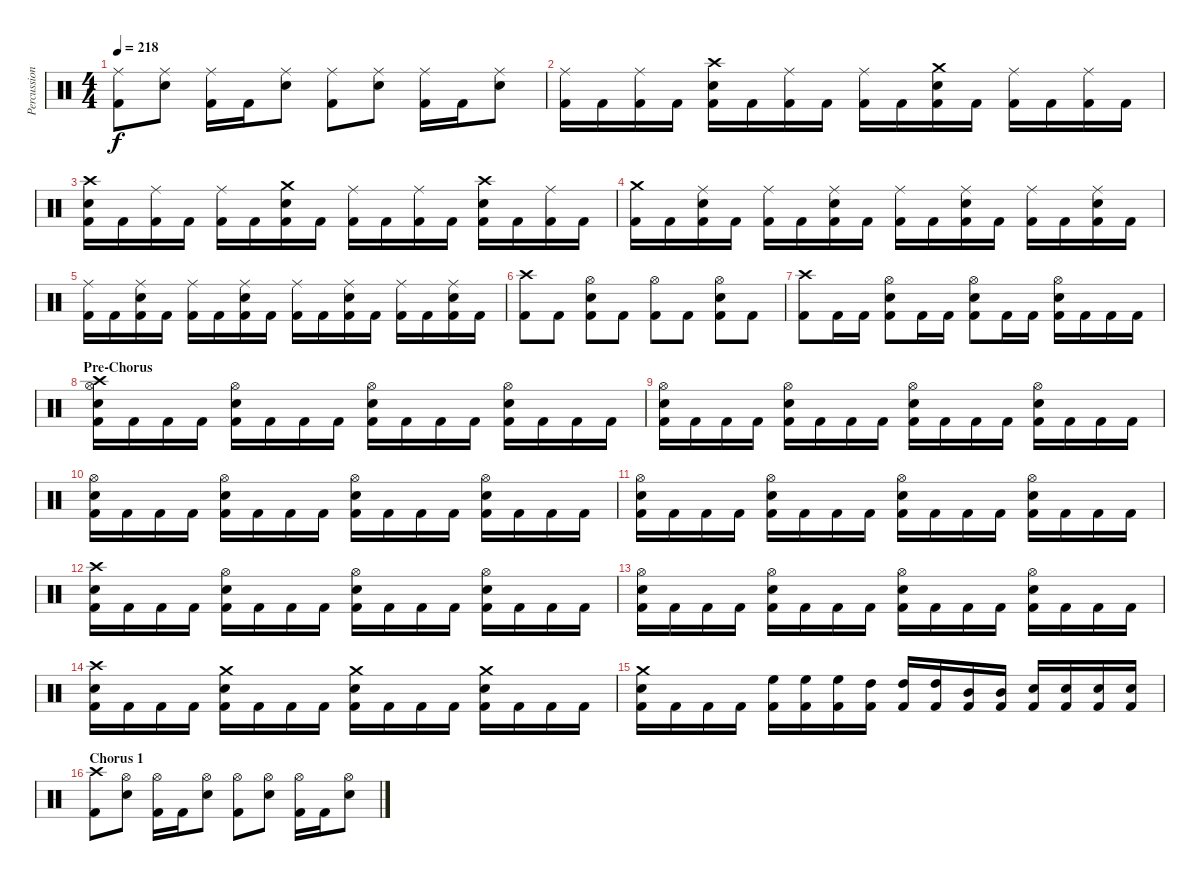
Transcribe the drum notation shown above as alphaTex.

\track ("Percussion" "Percussion") {instrument percussion}
\staff {score}
\articulation defaults
\ts (4 4)
\tempo 218
\clef neutral
\ks c
("Ride (middle)" "Kick (hit) 2").8{dy f} ("Ride (middle)" "Electric Snare (hit)").8 ("Ride (middle)" "Kick (hit) 2").16 "Kick (hit) 2".16 ("Ride (middle)" "Electric Snare (hit)").8 ("Ride (middle)" "Kick (hit) 2").8 ("Ride (middle)" "Electric Snare (hit)").8 ("Ride (middle)" "Kick (hit) 2").16 "Kick (hit) 2".16 ("Ride (middle)" "Electric Snare (hit)").8 |
("Ride (middle)" "Kick (hit) 2").16 "Kick (hit) 2".16 ("Ride (middle)" "Kick (hit) 2").16 "Kick (hit) 2".16 ("Crash high (hit)" "Electric Snare (hit)" "Kick (hit) 2").16 "Kick (hit) 2".16 ("Ride (middle)" "Kick (hit) 2").16 "Kick (hit) 2".16 ("Ride (middle)" "Kick (hit) 2").16 "Kick (hit) 2".16 ("Crash medium (hit)" "Electric Snare (hit)" "Kick (hit) 2").16 "Kick (hit) 2".16 ("Ride (middle)" "Kick (hit) 2").16 "Kick (hit) 2".16 ("Ride (middle)" "Kick (hit) 2").16 "Kick (hit) 2".16 |
("Crash high (hit)" "Electric Snare (hit)" "Kick (hit) 2").16 "Kick (hit) 2".16 ("Ride (middle)" "Kick (hit) 2").16 "Kick (hit) 2".16 ("Ride (middle)" "Kick (hit) 2").16 "Kick (hit) 2".16 ("Crash medium (hit)" "Electric Snare (hit)" "Kick (hit) 2").16 "Kick (hit) 2".16 ("Ride (middle)" "Kick (hit) 2").16 "Kick (hit) 2".16 ("Ride (middle)" "Kick (hit) 2").16 "Kick (hit) 2".16 ("Crash high (hit)" "Electric Snare (hit)" "Kick (hit) 2").16 "Kick (hit) 2".16 ("Ride (middle)" "Kick (hit) 2").16 "Kick (hit) 2".16 |
("Crash medium (hit)" "Kick (hit) 2").16 "Kick (hit) 2".16 ("Ride (middle)" "Electric Snare (hit)" "Kick (hit) 2").16 "Kick (hit) 2".16 ("Ride (middle)" "Kick (hit) 2").16 "Kick (hit) 2".16 ("Ride (middle)" "Electric Snare (hit)" "Kick (hit) 2").16 "Kick (hit) 2".16 ("Ride (middle)" "Kick (hit) 2").16 "Kick (hit) 2".16 ("Ride (middle)" "Electric Snare (hit)" "Kick (hit) 2").16 "Kick (hit) 2".16 ("Ride (middle)" "Kick (hit) 2").16 "Kick (hit) 2".16 ("Ride (middle)" "Electric Snare (hit)" "Kick (hit) 2").16 "Kick (hit) 2".16 |
("Ride (middle)" "Kick (hit) 2").16 "Kick (hit) 2".16 ("Ride (middle)" "Electric Snare (hit)" "Kick (hit) 2").16 "Kick (hit) 2".16 ("Ride (middle)" "Kick (hit) 2").16 "Kick (hit) 2".16 ("Ride (middle)" "Electric Snare (hit)" "Kick (hit) 2").16 "Kick (hit) 2".16 ("Ride (middle)" "Kick (hit) 2").16 "Kick (hit) 2".16 ("Ride (middle)" "Electric Snare (hit)" "Kick (hit) 2").16 "Kick (hit) 2".16 ("Ride (middle)" "Kick (hit) 2").16 "Kick (hit) 2".16 ("Ride (middle)" "Electric Snare (hit)" "Kick (hit) 2").16 "Kick (hit) 2".16 |
("Crash high (hit)" "Kick (hit) 2").8 "Kick (hit) 2".8 ("Hi-Hat (open)" "Electric Snare (hit)" "Kick (hit) 2").8 "Kick (hit) 2".8 ("Hi-Hat (open)" "Kick (hit) 2").8 "Kick (hit) 2".8 ("Hi-Hat (open)" "Electric Snare (hit)" "Kick (hit) 2").8 "Kick (hit) 2".8 |
("Crash high (hit)" "Kick (hit) 2").8 "Kick (hit) 2".16 "Kick (hit) 2".16 ("Hi-Hat (open)" "Electric Snare (hit)" "Kick (hit) 2").8 "Kick (hit) 2".16 "Kick (hit) 2".16 ("Hi-Hat (open)" "Electric Snare (hit)" "Kick (hit) 2").8 "Kick (hit) 2".16 "Kick (hit) 2".16 ("Hi-Hat (open)" "Electric Snare (hit)" "Kick (hit) 2").16 "Kick (hit) 2".16 "Kick (hit) 2".16 "Kick (hit) 2".16 |
\section ("" "Pre-Chorus")
("Crash high (hit)" "Hi-Hat (open)" "Electric Snare (hit)" "Kick (hit) 2").16 "Kick (hit) 2".16 "Kick (hit) 2".16 "Kick (hit) 2".16 ("Hi-Hat (open)" "Electric Snare (hit)" "Kick (hit) 2").16 "Kick (hit) 2".16 "Kick (hit) 2".16 "Kick (hit) 2".16 ("Hi-Hat (open)" "Electric Snare (hit)" "Kick (hit) 2").16 "Kick (hit) 2".16 "Kick (hit) 2".16 "Kick (hit) 2".16 ("Hi-Hat (open)" "Electric Snare (hit)" "Kick (hit) 2").16 "Kick (hit) 2".16 "Kick (hit) 2".16 "Kick (hit) 2".16 |
("Hi-Hat (open)" "Electric Snare (hit)" "Kick (hit) 2").16 "Kick (hit) 2".16 "Kick (hit) 2".16 "Kick (hit) 2".16 ("Hi-Hat (open)" "Electric Snare (hit)" "Kick (hit) 2").16 "Kick (hit) 2".16 "Kick (hit) 2".16 "Kick (hit) 2".16 ("Hi-Hat (open)" "Electric Snare (hit)" "Kick (hit) 2").16 "Kick (hit) 2".16 "Kick (hit) 2".16 "Kick (hit) 2".16 ("Hi-Hat (open)" "Electric Snare (hit)" "Kick (hit) 2").16 "Kick (hit) 2".16 "Kick (hit) 2".16 "Kick (hit) 2".16 |
("Hi-Hat (open)" "Electric Snare (hit)" "Kick (hit) 2").16 "Kick (hit) 2".16 "Kick (hit) 2".16 "Kick (hit) 2".16 ("Hi-Hat (open)" "Electric Snare (hit)" "Kick (hit) 2").16 "Kick (hit) 2".16 "Kick (hit) 2".16 "Kick (hit) 2".16 ("Hi-Hat (open)" "Electric Snare (hit)" "Kick (hit) 2").16 "Kick (hit) 2".16 "Kick (hit) 2".16 "Kick (hit) 2".16 ("Hi-Hat (open)" "Electric Snare (hit)" "Kick (hit) 2").16 "Kick (hit) 2".16 "Kick (hit) 2".16 "Kick (hit) 2".16 |
("Hi-Hat (open)" "Electric Snare (hit)" "Kick (hit) 2").16 "Kick (hit) 2".16 "Kick (hit) 2".16 "Kick (hit) 2".16 ("Hi-Hat (open)" "Electric Snare (hit)" "Kick (hit) 2").16 "Kick (hit) 2".16 "Kick (hit) 2".16 "Kick (hit) 2".16 ("Hi-Hat (open)" "Electric Snare (hit)" "Kick (hit) 2").16 "Kick (hit) 2".16 "Kick (hit) 2".16 "Kick (hit) 2".16 ("Hi-Hat (open)" "Electric Snare (hit)" "Kick (hit) 2").16 "Kick (hit) 2".16 "Kick (hit) 2".16 "Kick (hit) 2".16 |
("Crash high (hit)" "Electric Snare (hit)" "Kick (hit) 2").16 "Kick (hit) 2".16 "Kick (hit) 2".16 "Kick (hit) 2".16 ("Hi-Hat (open)" "Electric Snare (hit)" "Kick (hit) 2").16 "Kick (hit) 2".16 "Kick (hit) 2".16 "Kick (hit) 2".16 ("Hi-Hat (open)" "Electric Snare (hit)" "Kick (hit) 2").16 "Kick (hit) 2".16 "Kick (hit) 2".16 "Kick (hit) 2".16 ("Hi-Hat (open)" "Electric Snare (hit)" "Kick (hit) 2").16 "Kick (hit) 2".16 "Kick (hit) 2".16 "Kick (hit) 2".16 |
("Hi-Hat (open)" "Electric Snare (hit)" "Kick (hit) 2").16 "Kick (hit) 2".16 "Kick (hit) 2".16 "Kick (hit) 2".16 ("Hi-Hat (open)" "Electric Snare (hit)" "Kick (hit) 2").16 "Kick (hit) 2".16 "Kick (hit) 2".16 "Kick (hit) 2".16 ("Hi-Hat (open)" "Electric Snare (hit)" "Kick (hit) 2").16 "Kick (hit) 2".16 "Kick (hit) 2".16 "Kick (hit) 2".16 ("Hi-Hat (open)" "Electric Snare (hit)" "Kick (hit) 2").16 "Kick (hit) 2".16 "Kick (hit) 2".16 "Kick (hit) 2".16 |
("Crash high (hit)" "Electric Snare (hit)" "Kick (hit) 2").16 "Kick (hit) 2".16 "Kick (hit) 2".16 "Kick (hit) 2".16 ("Crash medium (hit)" "Electric Snare (hit)" "Kick (hit) 2").16 "Kick (hit) 2".16 "Kick (hit) 2".16 "Kick (hit) 2".16 ("Crash medium (hit)" "Electric Snare (hit)" "Kick (hit) 2").16 "Kick (hit) 2".16 "Kick (hit) 2".16 "Kick (hit) 2".16 ("Crash medium (hit)" "Electric Snare (hit)" "Kick (hit) 2").16 "Kick (hit) 2".16 "Kick (hit) 2".16 "Kick (hit) 2".16 |
("Crash medium (hit)" "Electric Snare (hit)" "Kick (hit) 2").16 "Kick (hit) 2".16 "Kick (hit) 2".16 "Kick (hit) 2".16 ("High Floor Tom (hit)" "Kick (hit) 2").16 ("High Floor Tom (hit)" "Kick (hit) 2").16 ("High Floor Tom (hit)" "Kick (hit) 2").16 ("High Tom (hit)" "Kick (hit) 2").16 ("High Tom (hit)" "Kick (hit) 2").16 ("High Tom (hit)" "Kick (hit) 2").16 ("Mid Tom (hit)" "Kick (hit) 2").16 ("Mid Tom (hit)" "Kick (hit) 2").16 ("Electric Snare (hit)" "Kick (hit) 2").16 ("Electric Snare (hit)" "Kick (hit) 2").16 ("Electric Snare (hit)" "Kick (hit) 2").16 ("Electric Snare (hit)" "Kick (hit) 2").16 |
\section ("" "Chorus 1")
("Crash high (hit)" "Kick (hit) 2").8 ("Hi-Hat (open)" "Electric Snare (hit)").8 ("Hi-Hat (open)" "Kick (hit) 2").16 "Kick (hit) 2".16 ("Hi-Hat (open)" "Electric Snare (hit)").8 ("Hi-Hat (open)" "Kick (hit) 2").8 ("Hi-Hat (open)" "Electric Snare (hit)").8 ("Hi-Hat (open)" "Kick (hit) 2").16 "Kick (hit) 2".16 ("Hi-Hat (open)" "Electric Snare (hit)").8
